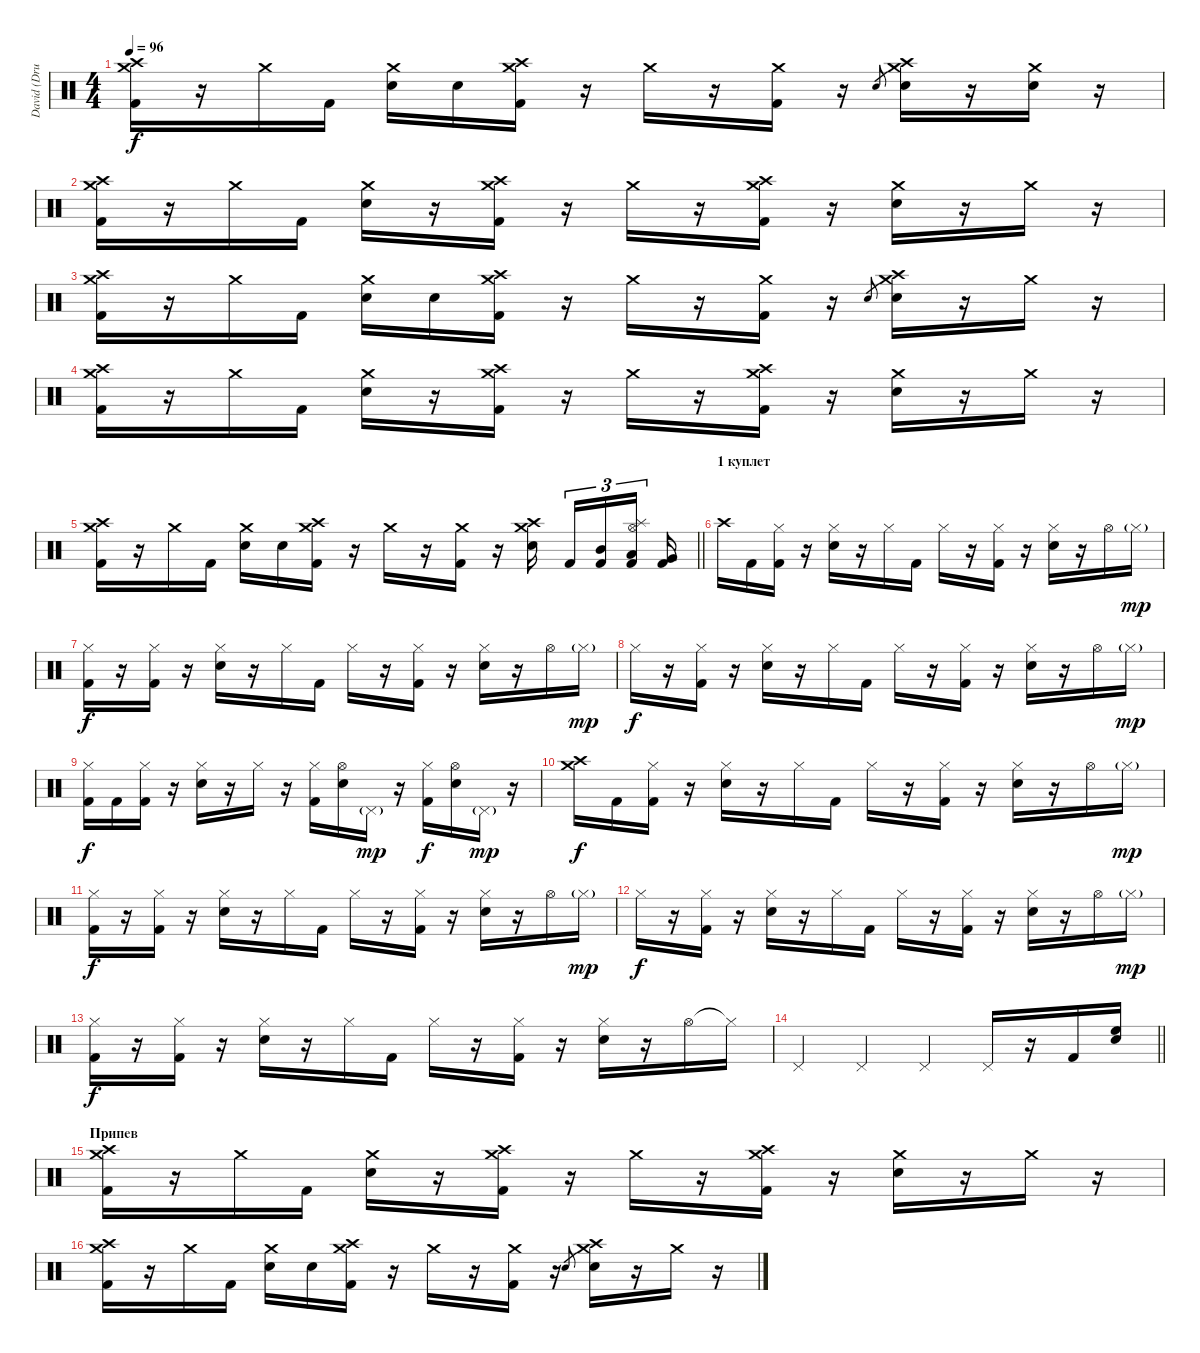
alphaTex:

\track ("David (Drums)" "David (Dru") {instrument percussion}
\staff {score}
\articulation defaults
\ts (4 4)
\tempo 96
\clef neutral
\ks c
("Crash high (hit)" "Crash medium (hit)" "Kick (hit) 2").16{dy f} r.16 "Crash medium (hit)".16 "Kick (hit) 2".16 ("Crash medium (hit)" "Electric Snare (hit)").16 "Electric Snare (hit)".16 ("Crash high (hit)" "Crash medium (hit)" "Kick (hit) 2").16 r.16 "Crash medium (hit)".16 r.16 ("Crash medium (hit)" "Kick (hit) 2").16 r.16 "Electric Snare (hit)".8{gr} ("Crash high (hit)" "Crash medium (hit)" "Electric Snare (hit)").16 r.16 ("Crash medium (hit)" "Electric Snare (hit)").16 r.16 |
("Crash high (hit)" "Crash medium (hit)" "Kick (hit) 2").16 r.16 "Crash medium (hit)".16 "Kick (hit) 2".16 ("Crash medium (hit)" "Electric Snare (hit)").16 r.16 ("Crash high (hit)" "Crash medium (hit)" "Kick (hit) 2").16 r.16 "Crash medium (hit)".16 r.16 ("Crash high (hit)" "Crash medium (hit)" "Kick (hit) 2").16 r.16 ("Crash medium (hit)" "Electric Snare (hit)").16 r.16 "Crash medium (hit)".16 r.16 |
("Crash high (hit)" "Crash medium (hit)" "Kick (hit) 2").16 r.16 "Crash medium (hit)".16 "Kick (hit) 2".16 ("Crash medium (hit)" "Electric Snare (hit)").16 "Electric Snare (hit)".16 ("Crash high (hit)" "Crash medium (hit)" "Kick (hit) 2").16 r.16 "Crash medium (hit)".16 r.16 ("Crash medium (hit)" "Kick (hit) 2").16 r.16 "Electric Snare (hit)".8{gr} ("Crash high (hit)" "Crash medium (hit)" "Electric Snare (hit)").16 r.16 "Crash medium (hit)".16 r.16 |
("Crash high (hit)" "Crash medium (hit)" "Kick (hit) 2").16 r.16 "Crash medium (hit)".16 "Kick (hit) 2".16 ("Crash medium (hit)" "Electric Snare (hit)").16 r.16 ("Crash high (hit)" "Crash medium (hit)" "Kick (hit) 2").16 r.16 "Crash medium (hit)".16 r.16 ("Crash high (hit)" "Crash medium (hit)" "Kick (hit) 2").16 r.16 ("Crash medium (hit)" "Electric Snare (hit)").16 r.16 "Crash medium (hit)".16 r.16 |
\barLineRight lightlight
("Crash high (hit)" "Crash medium (hit)" "Kick (hit) 2").16 r.16 "Crash medium (hit)".16 "Kick (hit) 2".16 ("Crash medium (hit)" "Electric Snare (hit)").16 "Electric Snare (hit)".16 ("Crash high (hit)" "Crash medium (hit)" "Kick (hit) 2").16 r.16 "Crash medium (hit)".16 r.16 ("Crash medium (hit)" "Kick (hit) 2").16 r.16 ("Crash high (hit)" "Crash medium (hit)" "Electric Snare (hit)").16{beam splitsecondary} "Kick (hit) 2".16{tu (3 2)} ("Mid Tom (hit)" "Kick (hit) 2").16{tu (3 2)} ("Splash (hit)" "Hi-Hat (open)" "Low Tom (hit)" "Kick (hit) 2").16{tu (3 2) beam splitsecondary} ("Very Low Tom (hit)" "Kick (hit) 2").16 |
\section ("" "1 куплет")
"Crash high (hit)".16 "Kick (hit) 2".16 ("Hi-Hat (closed)" "Kick (hit) 2").16 r.16 ("Hi-Hat (closed)" "Electric Snare (hit)").16 r.16 "Hi-Hat (closed)".16 "Kick (hit) 2".16 "Hi-Hat (closed)".16 r.16 ("Hi-Hat (closed)" "Kick (hit) 2").16 r.16 ("Hi-Hat (closed)" "Electric Snare (hit)").16 r.16 "Hi-Hat (open)".16 "Hi-Hat (closed)"{g}.16{dy mp} |
("Hi-Hat (closed)" "Kick (hit) 2").16{dy f} r.16 ("Hi-Hat (closed)" "Kick (hit) 2").16 r.16 ("Hi-Hat (closed)" "Electric Snare (hit)").16 r.16 "Hi-Hat (closed)".16 "Kick (hit) 2".16 "Hi-Hat (closed)".16 r.16 ("Hi-Hat (closed)" "Kick (hit) 2").16 r.16 ("Hi-Hat (closed)" "Electric Snare (hit)").16 r.16 "Hi-Hat (open)".16 "Hi-Hat (closed)"{g}.16{dy mp} |
"Hi-Hat (closed)".16{dy f} r.16 ("Hi-Hat (closed)" "Kick (hit) 2").16 r.16 ("Hi-Hat (closed)" "Electric Snare (hit)").16 r.16 "Hi-Hat (closed)".16 "Kick (hit) 2".16 "Hi-Hat (closed)".16 r.16 ("Hi-Hat (closed)" "Kick (hit) 2").16 r.16 ("Hi-Hat (closed)" "Electric Snare (hit)").16 r.16 "Hi-Hat (open)".16 "Hi-Hat (closed)"{g}.16{dy mp} |
("Hi-Hat (closed)" "Kick (hit) 2").16{dy f} "Kick (hit) 2".16 ("Hi-Hat (closed)" "Kick (hit) 2").16 r.16 ("Hi-Hat (closed)" "Electric Snare (hit)").16 r.16 "Hi-Hat (closed)".16 r.16 ("Hi-Hat (closed)" "Kick (hit) 2").16 ("Hi-Hat (open)" "Electric Snare (hit)").16 "Pedal Hi-Hat (hit)"{g}.16{dy mp} r.16 ("Hi-Hat (closed)" "Kick (hit) 2").16{dy f} ("Hi-Hat (open)" "Electric Snare (hit)").16 "Pedal Hi-Hat (hit)"{g}.16{dy mp} r.16 |
("Crash high (hit)" "Crash medium (hit)").16{dy f} "Kick (hit) 2".16 ("Hi-Hat (closed)" "Kick (hit) 2").16 r.16 ("Hi-Hat (closed)" "Electric Snare (hit)").16 r.16 "Hi-Hat (closed)".16 "Kick (hit) 2".16 "Hi-Hat (closed)".16 r.16 ("Hi-Hat (closed)" "Kick (hit) 2").16 r.16 ("Hi-Hat (closed)" "Electric Snare (hit)").16 r.16 "Hi-Hat (open)".16 "Hi-Hat (closed)"{g}.16{dy mp} |
("Hi-Hat (closed)" "Kick (hit) 2").16{dy f} r.16 ("Hi-Hat (closed)" "Kick (hit) 2").16 r.16 ("Hi-Hat (closed)" "Electric Snare (hit)").16 r.16 "Hi-Hat (closed)".16 "Kick (hit) 2".16 "Hi-Hat (closed)".16 r.16 ("Hi-Hat (closed)" "Kick (hit) 2").16 r.16 ("Hi-Hat (closed)" "Electric Snare (hit)").16 r.16 "Hi-Hat (open)".16 "Hi-Hat (closed)"{g}.16{dy mp} |
"Hi-Hat (closed)".16{dy f} r.16 ("Hi-Hat (closed)" "Kick (hit) 2").16 r.16 ("Hi-Hat (closed)" "Electric Snare (hit)").16 r.16 "Hi-Hat (closed)".16 "Kick (hit) 2".16 "Hi-Hat (closed)".16 r.16 ("Hi-Hat (closed)" "Kick (hit) 2").16 r.16 ("Hi-Hat (closed)" "Electric Snare (hit)").16 r.16 "Hi-Hat (open)".16 "Hi-Hat (closed)"{g}.16{dy mp} |
("Hi-Hat (closed)" "Kick (hit) 2").16{dy f} r.16 ("Hi-Hat (closed)" "Kick (hit) 2").16 r.16 ("Hi-Hat (closed)" "Electric Snare (hit)").16 r.16 "Hi-Hat (closed)".16 "Kick (hit) 2".16 "Hi-Hat (closed)".16 r.16 ("Hi-Hat (closed)" "Kick (hit) 2").16 r.16 ("Hi-Hat (closed)" "Electric Snare (hit)").16 r.16 "Hi-Hat (open)".16 "Hi-Hat (closed)"{t}.16 |
\barLineRight lightlight "Pedal Hi-Hat (hit)".4 "Pedal Hi-Hat (hit)".4 "Pedal Hi-Hat (hit)".4 "Pedal Hi-Hat (hit)".16
r.16 "Kick (hit) 2".16 ("High Floor Tom (hit)" "Electric Snare (hit)").16 |
\section ("" "Припев")
("Crash high (hit)" "Crash medium (hit)" "Kick (hit) 2").16 r.16 "Crash medium (hit)".16 "Kick (hit) 2".16 ("Crash medium (hit)" "Electric Snare (hit)").16 r.16 ("Crash high (hit)" "Crash medium (hit)" "Kick (hit) 2").16 r.16 "Crash medium (hit)".16 r.16 ("Crash high (hit)" "Crash medium (hit)" "Kick (hit) 2").16 r.16 ("Crash medium (hit)" "Electric Snare (hit)").16 r.16 "Crash medium (hit)".16 r.16 |
("Crash high (hit)" "Crash medium (hit)" "Kick (hit) 2").16 r.16 "Crash medium (hit)".16 "Kick (hit) 2".16 ("Crash medium (hit)" "Electric Snare (hit)").16 "Electric Snare (hit)".16 ("Crash high (hit)" "Crash medium (hit)" "Kick (hit) 2").16 r.16 "Crash medium (hit)".16 r.16 ("Crash medium (hit)" "Kick (hit) 2").16 r.16 "Electric Snare (hit)".8{gr} ("Crash high (hit)" "Crash medium (hit)" "Electric Snare (hit)").16 r.16 "Crash medium (hit)".16 r.16
